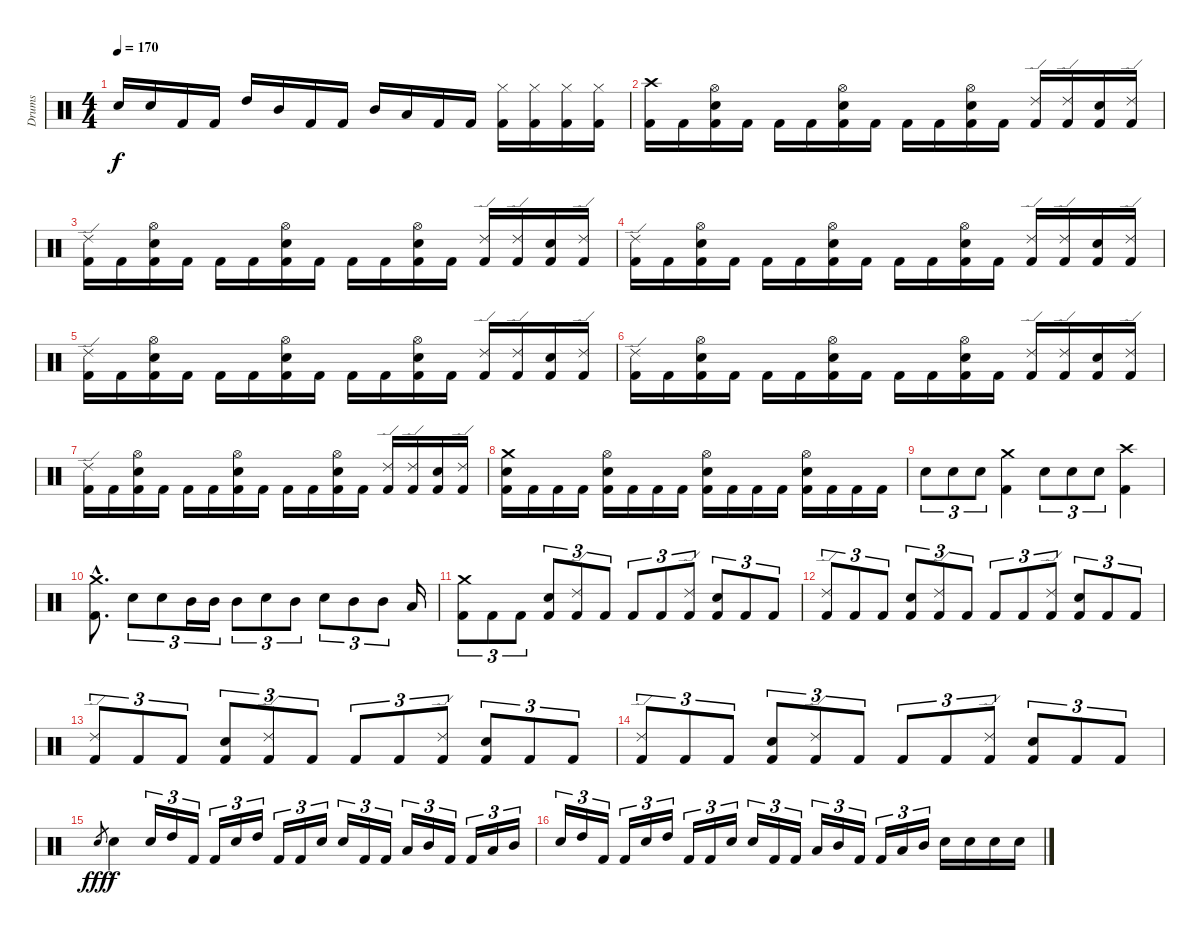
\track ("Drums" "Drums") {instrument percussion}
\staff {score}
\articulation defaults
\ts (4 4)
\tempo 170
\clef neutral
\ks c "Electric Snare (hit)".16{dy f} "Electric Snare (hit)".16 "Kick (hit) 2".16 "Kick (hit) 2".16 "High Tom (hit)".16 "Mid Tom (hit)".16 "Kick (hit) 2".16 "Kick (hit) 2".16 "Mid Tom (hit)".16 "Low Tom (hit)".16 "Kick (hit) 2".16 "Kick (hit) 2".16
("Kick (hit) 2" "Hi-Hat (closed)").16 ("Kick (hit) 2" "Hi-Hat (closed)").16 ("Kick (hit) 2" "Hi-Hat (closed)").16 ("Kick (hit) 2" "Hi-Hat (closed)").16 |
("Kick (hit) 2" "Crash high (hit)").16 "Kick (hit) 2".16 ("Kick (hit) 2" "Electric Snare (hit)" "Hi-Hat (open)").16 "Kick (hit) 2".16 "Kick (hit) 2".16 "Kick (hit) 2".16 ("Kick (hit) 2" "Electric Snare (hit)" "Hi-Hat (open)").16 "Kick (hit) 2".16 "Kick (hit) 2".16 "Kick (hit) 2".16 ("Kick (hit) 2" "Electric Snare (hit)" "Hi-Hat (open)").16 "Kick (hit) 2".16 ("Kick (hit) 2" "Ride (edge) 2").16 ("Kick (hit) 2" "Ride (edge) 2").16 ("Kick (hit) 2" "Electric Snare (hit)").16 ("Kick (hit) 2" "Ride (edge) 2").16 |
("Kick (hit) 2" "Ride (edge) 2").16 "Kick (hit) 2".16 ("Kick (hit) 2" "Electric Snare (hit)" "Hi-Hat (open)").16 "Kick (hit) 2".16 "Kick (hit) 2".16 "Kick (hit) 2".16 ("Kick (hit) 2" "Electric Snare (hit)" "Hi-Hat (open)").16 "Kick (hit) 2".16 "Kick (hit) 2".16 "Kick (hit) 2".16 ("Kick (hit) 2" "Electric Snare (hit)" "Hi-Hat (open)").16 "Kick (hit) 2".16 ("Kick (hit) 2" "Ride (edge) 2").16 ("Kick (hit) 2" "Ride (edge) 2").16 ("Kick (hit) 2" "Electric Snare (hit)").16 ("Kick (hit) 2" "Ride (edge) 2").16 |
("Kick (hit) 2" "Ride (edge) 2").16 "Kick (hit) 2".16 ("Kick (hit) 2" "Electric Snare (hit)" "Hi-Hat (open)").16 "Kick (hit) 2".16 "Kick (hit) 2".16 "Kick (hit) 2".16 ("Kick (hit) 2" "Electric Snare (hit)" "Hi-Hat (open)").16 "Kick (hit) 2".16 "Kick (hit) 2".16 "Kick (hit) 2".16 ("Kick (hit) 2" "Electric Snare (hit)" "Hi-Hat (open)").16 "Kick (hit) 2".16 ("Kick (hit) 2" "Ride (edge) 2").16 ("Kick (hit) 2" "Ride (edge) 2").16 ("Kick (hit) 2" "Electric Snare (hit)").16 ("Kick (hit) 2" "Ride (edge) 2").16 |
("Kick (hit) 2" "Ride (edge) 2").16 "Kick (hit) 2".16 ("Kick (hit) 2" "Electric Snare (hit)" "Hi-Hat (open)").16 "Kick (hit) 2".16 "Kick (hit) 2".16 "Kick (hit) 2".16 ("Kick (hit) 2" "Electric Snare (hit)" "Hi-Hat (open)").16 "Kick (hit) 2".16 "Kick (hit) 2".16 "Kick (hit) 2".16 ("Kick (hit) 2" "Electric Snare (hit)" "Hi-Hat (open)").16 "Kick (hit) 2".16 ("Kick (hit) 2" "Ride (edge) 2").16 ("Kick (hit) 2" "Ride (edge) 2").16 ("Kick (hit) 2" "Electric Snare (hit)").16 ("Kick (hit) 2" "Ride (edge) 2").16 |
("Kick (hit) 2" "Ride (edge) 2").16 "Kick (hit) 2".16 ("Kick (hit) 2" "Electric Snare (hit)" "Hi-Hat (open)").16 "Kick (hit) 2".16 "Kick (hit) 2".16 "Kick (hit) 2".16 ("Kick (hit) 2" "Electric Snare (hit)" "Hi-Hat (open)").16 "Kick (hit) 2".16 "Kick (hit) 2".16 "Kick (hit) 2".16 ("Kick (hit) 2" "Electric Snare (hit)" "Hi-Hat (open)").16 "Kick (hit) 2".16 ("Kick (hit) 2" "Ride (edge) 2").16 ("Kick (hit) 2" "Ride (edge) 2").16 ("Kick (hit) 2" "Electric Snare (hit)").16 ("Kick (hit) 2" "Ride (edge) 2").16 |
("Kick (hit) 2" "Ride (edge) 2").16 "Kick (hit) 2".16 ("Kick (hit) 2" "Electric Snare (hit)" "Hi-Hat (open)").16 "Kick (hit) 2".16 "Kick (hit) 2".16 "Kick (hit) 2".16 ("Kick (hit) 2" "Electric Snare (hit)" "Hi-Hat (open)").16 "Kick (hit) 2".16 "Kick (hit) 2".16 "Kick (hit) 2".16 ("Kick (hit) 2" "Electric Snare (hit)" "Hi-Hat (open)").16 "Kick (hit) 2".16 ("Kick (hit) 2" "Ride (edge) 2").16 ("Kick (hit) 2" "Ride (edge) 2").16 ("Kick (hit) 2" "Electric Snare (hit)").16 ("Kick (hit) 2" "Ride (edge) 2").16 |
("Kick (hit) 2" "Electric Snare (hit)" "Crash medium (hit)").16 "Kick (hit) 2".16 "Kick (hit) 2".16 "Kick (hit) 2".16 ("Kick (hit) 2" "Electric Snare (hit)" "Hi-Hat (open)").16 "Kick (hit) 2".16 "Kick (hit) 2".16 "Kick (hit) 2".16 ("Kick (hit) 2" "Electric Snare (hit)" "Hi-Hat (open)").16 "Kick (hit) 2".16 "Kick (hit) 2".16 "Kick (hit) 2".16 ("Kick (hit) 2" "Electric Snare (hit)" "Hi-Hat (open)").16 "Kick (hit) 2".16 "Kick (hit) 2".16 "Kick (hit) 2".16 |
"Electric Snare (hit)".8{tu (3 2)} "Electric Snare (hit)".8{tu (3 2)} "Electric Snare (hit)".8{tu (3 2)} ("Kick (hit) 2" "Crash medium (hit)").4 "Electric Snare (hit)".8{tu (3 2)} "Electric Snare (hit)".8{tu (3 2)} "Electric Snare (hit)".8{tu (3 2)} ("Kick (hit) 2" "Crash high (hit)").4 |
("Crash medium (hit)"{hac} "Kick (hit) 2"{hac}).8{d} "Electric Snare (hit)".8{tu (3 2)} "Electric Snare (hit)".8{tu (3 2)} "Mid Tom (hit)".16{tu (3 2)} "Mid Tom (hit)".16{tu (3 2)} "Mid Tom (hit)".8{tu (3 2)} "Electric Snare (hit)".8{tu (3 2)} "Mid Tom (hit)".8{tu (3 2)} "Electric Snare (hit)".8{tu (3 2)} "Mid Tom (hit)".8{tu (3 2)} "Mid Tom (hit)".8{tu (3 2)} "Low Tom (hit)".16 |
("Kick (hit) 2" "Crash medium (hit)").8{tu (3 2)} "Kick (hit) 2".8{tu (3 2)} "Kick (hit) 2".8{tu (3 2)} ("Kick (hit) 2" "Electric Snare (hit)").8{tu (3 2)} ("Kick (hit) 2" "Ride (edge) 2").8{tu (3 2)} "Kick (hit) 2".8{tu (3 2)} "Kick (hit) 2".8{tu (3 2)} "Kick (hit) 2".8{tu (3 2)} ("Kick (hit) 2" "Ride (edge) 2").8{tu (3 2)} ("Kick (hit) 2" "Electric Snare (hit)").8{tu (3 2)} "Kick (hit) 2".8{tu (3 2)} "Kick (hit) 2".8{tu (3 2)} |
("Kick (hit) 2" "Ride (edge) 2").8{tu (3 2)} "Kick (hit) 2".8{tu (3 2)} "Kick (hit) 2".8{tu (3 2)} ("Kick (hit) 2" "Electric Snare (hit)").8{tu (3 2)} ("Kick (hit) 2" "Ride (edge) 2").8{tu (3 2)} "Kick (hit) 2".8{tu (3 2)} "Kick (hit) 2".8{tu (3 2)} "Kick (hit) 2".8{tu (3 2)} ("Kick (hit) 2" "Ride (edge) 2").8{tu (3 2)} ("Kick (hit) 2" "Electric Snare (hit)").8{tu (3 2)} "Kick (hit) 2".8{tu (3 2)} "Kick (hit) 2".8{tu (3 2)} |
("Kick (hit) 2" "Ride (edge) 2").8{tu (3 2)} "Kick (hit) 2".8{tu (3 2)} "Kick (hit) 2".8{tu (3 2)} ("Kick (hit) 2" "Electric Snare (hit)").8{tu (3 2)} ("Kick (hit) 2" "Ride (edge) 2").8{tu (3 2)} "Kick (hit) 2".8{tu (3 2)} "Kick (hit) 2".8{tu (3 2)} "Kick (hit) 2".8{tu (3 2)} ("Kick (hit) 2" "Ride (edge) 2").8{tu (3 2)} ("Kick (hit) 2" "Electric Snare (hit)").8{tu (3 2)} "Kick (hit) 2".8{tu (3 2)} "Kick (hit) 2".8{tu (3 2)} |
("Kick (hit) 2" "Ride (edge) 2").8{tu (3 2)} "Kick (hit) 2".8{tu (3 2)} "Kick (hit) 2".8{tu (3 2)} ("Kick (hit) 2" "Electric Snare (hit)").8{tu (3 2)} ("Kick (hit) 2" "Ride (edge) 2").8{tu (3 2)} "Kick (hit) 2".8{tu (3 2)} "Kick (hit) 2".8{tu (3 2)} "Kick (hit) 2".8{tu (3 2)} ("Kick (hit) 2" "Ride (edge) 2").8{tu (3 2)} ("Kick (hit) 2" "Electric Snare (hit)").8{tu (3 2)} "Kick (hit) 2".8{tu (3 2)} "Kick (hit) 2".8{tu (3 2)} |
"Electric Snare (hit)".8{gr dy fff} "Electric Snare (hit)".4{dy f} "Electric Snare (hit)".16{tu (3 2)} "High Tom (hit)".16{tu (3 2)} "Kick (hit) 2".16{tu (3 2)} "Kick (hit) 2".16{tu (3 2)} "Electric Snare (hit)".16{tu (3 2)} "High Tom (hit)".16{tu (3 2)} "Kick (hit) 2".16{tu (3 2)} "Kick (hit) 2".16{tu (3 2)} "Electric Snare (hit)".16{tu (3 2)} "Electric Snare (hit)".16{tu (3 2)} "Kick (hit) 2".16{tu (3 2)} "Kick (hit) 2".16{tu (3 2)} "Low Tom (hit)".16{tu (3 2)} "Mid Tom (hit)".16{tu (3 2)} "Kick (hit) 2".16{tu (3 2)} "Kick (hit) 2".16{tu (3 2)} "Low Tom (hit)".16{tu (3 2)} "Mid Tom (hit)".16{tu (3 2)} |
"Electric Snare (hit)".16{tu (3 2)} "High Tom (hit)".16{tu (3 2)} "Kick (hit) 2".16{tu (3 2)} "Kick (hit) 2".16{tu (3 2)} "Electric Snare (hit)".16{tu (3 2)} "High Tom (hit)".16{tu (3 2)} "Kick (hit) 2".16{tu (3 2)} "Kick (hit) 2".16{tu (3 2)} "Electric Snare (hit)".16{tu (3 2)} "Electric Snare (hit)".16{tu (3 2)} "Kick (hit) 2".16{tu (3 2)} "Kick (hit) 2".16{tu (3 2)} "Low Tom (hit)".16{tu (3 2)} "Mid Tom (hit)".16{tu (3 2)} "Kick (hit) 2".16{tu (3 2)} "Kick (hit) 2".16{tu (3 2)} "Low Tom (hit)".16{tu (3 2)} "Mid Tom (hit)".16{tu (3 2)} "Electric Snare (hit)".16 "Electric Snare (hit)".16 "Electric Snare (hit)".16 "Electric Snare (hit)".16
